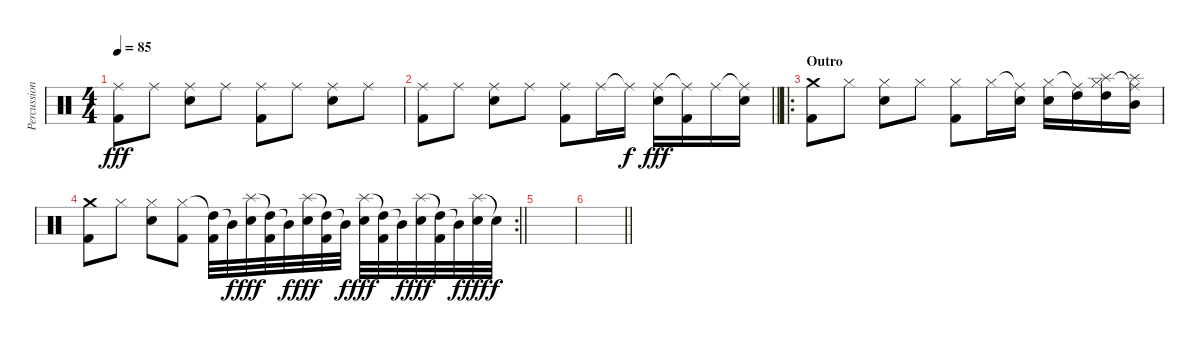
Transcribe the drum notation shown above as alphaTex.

\track ("Percussion" "Percussion") {instrument percussion}
\staff {score}
\articulation defaults
\ts (4 4)
\tempo 85
\clef neutral
\ks c
("Ride (middle)" "Kick (hit) 2").8{dy fff} "Ride (middle)".8 ("Ride (middle)" "Snare (hit) 2").8 "Ride (middle)".8 ("Ride (middle)" "Kick (hit) 2").8 "Ride (middle)".8 ("Ride (middle)" "Snare (hit) 2").8 "Ride (middle)".8 |
\barLineRight lightlight
("Ride (middle)" "Kick (hit) 2").8 "Ride (middle)".8 ("Ride (middle)" "Snare (hit) 2").8 "Ride (middle)".8 ("Ride (middle)" "Kick (hit) 2").8 "Ride (middle)".16 "Ride (middle)"{t}.16{dy f} ("Ride (middle)" "Snare (hit) 2").16{dy fff} ("Ride (middle)"{t} "Kick (hit) 2").16 "Ride (middle)".16 ("Ride (middle)"{t} "Snare (hit) 2").16 |
\ro
\section ("" "Outro")
("Crash medium (hit)" "Kick (hit) 2").8 "Hi-Hat (closed)".8 ("Hi-Hat (closed)" "Snare (hit) 2").8 "Hi-Hat (closed)".8 ("Hi-Hat (closed)" "Kick (hit) 2").8 "Hi-Hat (closed)".16 ("Ride (middle)"{t} "Snare (hit) 2").16 ("Hi-Hat (closed)" "Snare (hit) 2").16 ("Ride (middle)"{t} "High Tom (hit)").16 ("Splash (hit)" "Hi-Hat (closed)" "High Tom (hit)").16 ("Splash (hit)" "Ride (middle)"{t} "Mid Tom (hit)").16 |
\rc 2
\barLineRight lightlight
("Crash medium (hit)" "Kick (hit) 2").8 "Hi-Hat (closed)".8 ("Hi-Hat (closed)" "Snare (hit) 2").8 ("Hi-Hat (closed)" "Kick (hit) 2").8 ("High Tom (hit)"{t} "Kick (hit) 2").32 "Mid Tom (hit)"{t}.32{dy f} ("Splash (hit)" "Snare (hit) 2").32{dy fff} ("High Tom (hit)"{t} "Kick (hit) 2").32 "Mid Tom (hit)"{t}.32{dy f} ("Splash (hit)" "Snare (hit) 2").32{dy fff} ("High Tom (hit)"{t} "Kick (hit) 2").32 "Mid Tom (hit)"{t}.32{dy f} ("Splash (hit)" "Snare (hit) 2").32{dy fff} ("High Tom (hit)"{t} "Kick (hit) 2").32 "Mid Tom (hit)"{t}.32{dy f} ("Splash (hit)" "Snare (hit) 2").32{dy fff} ("High Tom (hit)"{t} "Kick (hit) 2").32 "Mid Tom (hit)"{t}.32{dy f} ("Splash (hit)" "Snare (hit) 2").32{dy fff} "Snare (hit) 2"{t}.32{dy f} |
|
\barLineRight lightlight
